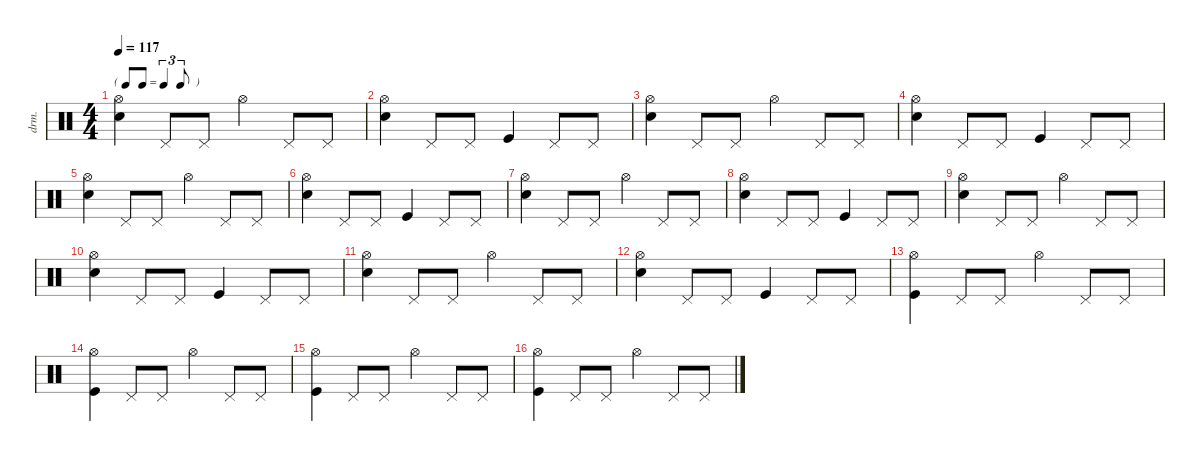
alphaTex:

\defaultSystemsLayout 4
\hideDynamics
\bracketExtendMode nobrackets
\otherSystemsTrackNameOrientation horizontal
\track ("Percussions" "drm.") {instrument percussion}
\staff {score}
\articulation defaults
\ts (4 4)
\tf triplet8th
\tempo 117
\clef neutral
\ks c
("Hi-Hat (open)" "Snare (hit) 2").4{dy f} "Pedal Hi-Hat (hit)".8 "Pedal Hi-Hat (hit)".8 "Hi-Hat (open)".4 "Pedal Hi-Hat (hit)".8 "Pedal Hi-Hat (hit)".8 |
("Hi-Hat (open)" "Snare (hit) 2").4 "Pedal Hi-Hat (hit)".8 "Pedal Hi-Hat (hit)".8 "Kick (hit)".4 "Pedal Hi-Hat (hit)".8 "Pedal Hi-Hat (hit)".8 |
("Hi-Hat (open)" "Snare (hit) 2").4 "Pedal Hi-Hat (hit)".8 "Pedal Hi-Hat (hit)".8 "Hi-Hat (open)".4 "Pedal Hi-Hat (hit)".8 "Pedal Hi-Hat (hit)".8 |
("Hi-Hat (open)" "Snare (hit) 2").4 "Pedal Hi-Hat (hit)".8 "Pedal Hi-Hat (hit)".8 "Kick (hit)".4 "Pedal Hi-Hat (hit)".8 "Pedal Hi-Hat (hit)".8 |
("Hi-Hat (open)" "Snare (hit) 2").4 "Pedal Hi-Hat (hit)".8 "Pedal Hi-Hat (hit)".8 "Hi-Hat (open)".4 "Pedal Hi-Hat (hit)".8 "Pedal Hi-Hat (hit)".8 |
("Hi-Hat (open)" "Snare (hit) 2").4 "Pedal Hi-Hat (hit)".8 "Pedal Hi-Hat (hit)".8 "Kick (hit)".4 "Pedal Hi-Hat (hit)".8 "Pedal Hi-Hat (hit)".8 |
("Hi-Hat (open)" "Snare (hit) 2").4 "Pedal Hi-Hat (hit)".8 "Pedal Hi-Hat (hit)".8 "Hi-Hat (open)".4 "Pedal Hi-Hat (hit)".8 "Pedal Hi-Hat (hit)".8 |
("Hi-Hat (open)" "Snare (hit) 2").4 "Pedal Hi-Hat (hit)".8 "Pedal Hi-Hat (hit)".8 "Kick (hit)".4 "Pedal Hi-Hat (hit)".8 "Pedal Hi-Hat (hit)".8 |
("Hi-Hat (open)" "Snare (hit) 2").4 "Pedal Hi-Hat (hit)".8 "Pedal Hi-Hat (hit)".8 "Hi-Hat (open)".4 "Pedal Hi-Hat (hit)".8 "Pedal Hi-Hat (hit)".8 |
("Hi-Hat (open)" "Snare (hit) 2").4 "Pedal Hi-Hat (hit)".8 "Pedal Hi-Hat (hit)".8 "Kick (hit)".4 "Pedal Hi-Hat (hit)".8 "Pedal Hi-Hat (hit)".8 |
("Hi-Hat (open)" "Snare (hit) 2").4 "Pedal Hi-Hat (hit)".8 "Pedal Hi-Hat (hit)".8 "Hi-Hat (open)".4 "Pedal Hi-Hat (hit)".8 "Pedal Hi-Hat (hit)".8 |
("Hi-Hat (open)" "Snare (hit) 2").4 "Pedal Hi-Hat (hit)".8 "Pedal Hi-Hat (hit)".8 "Kick (hit)".4 "Pedal Hi-Hat (hit)".8 "Pedal Hi-Hat (hit)".8 |
("Hi-Hat (open)" "Kick (hit)").4 "Pedal Hi-Hat (hit)".8 "Pedal Hi-Hat (hit)".8 "Hi-Hat (open)".4 "Pedal Hi-Hat (hit)".8 "Pedal Hi-Hat (hit)".8 |
("Hi-Hat (open)" "Kick (hit)").4 "Pedal Hi-Hat (hit)".8 "Pedal Hi-Hat (hit)".8 "Hi-Hat (open)".4 "Pedal Hi-Hat (hit)".8 "Pedal Hi-Hat (hit)".8 |
("Hi-Hat (open)" "Kick (hit)").4 "Pedal Hi-Hat (hit)".8 "Pedal Hi-Hat (hit)".8 "Hi-Hat (open)".4 "Pedal Hi-Hat (hit)".8 "Pedal Hi-Hat (hit)".8 |
("Hi-Hat (open)" "Kick (hit)").4 "Pedal Hi-Hat (hit)".8 "Pedal Hi-Hat (hit)".8 "Hi-Hat (open)".4 "Pedal Hi-Hat (hit)".8 "Pedal Hi-Hat (hit)".8
